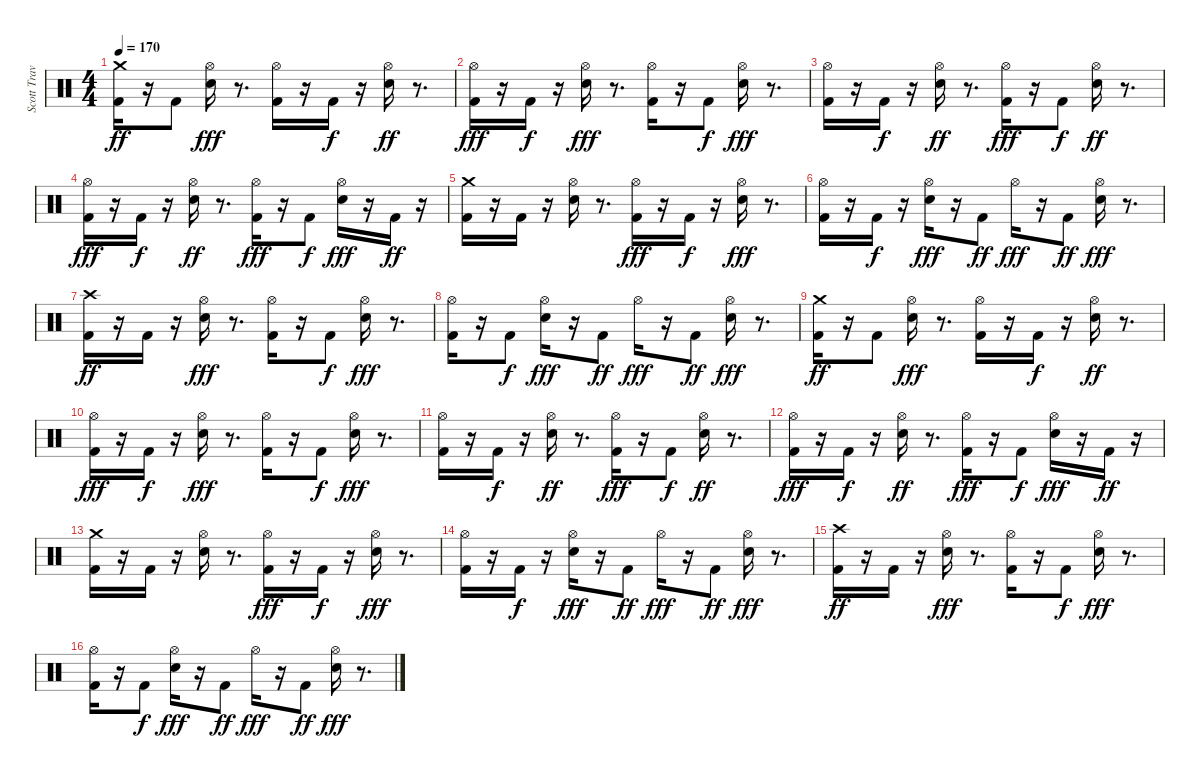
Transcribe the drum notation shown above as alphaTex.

\track ("Scott Travis" "Scott Trav") {instrument percussion}
\staff {score}
\articulation defaults
\ts (4 4)
\tempo 170
\clef neutral
\ks c
("Kick (hit) 2" "Crash medium (hit)").16{dy ff} r.16 "Kick (hit) 2".8 ("Hi-Hat (open)" "Snare (hit) 2").16{dy fff} r.8{d} ("Kick (hit) 2" "Hi-Hat (open)").16 r.16 "Kick (hit) 2".16{dy f} r.16 ("Hi-Hat (open)" "Snare (hit) 2").16{dy ff} r.8{d} |
("Hi-Hat (open)" "Kick (hit) 2").16{dy fff} r.16 "Kick (hit) 2".16{dy f} r.16 ("Snare (hit) 2" "Hi-Hat (open)").16{dy fff} r.8{d} ("Kick (hit) 2" "Hi-Hat (open)").16 r.16 "Kick (hit) 2".8{dy f} ("Snare (hit) 2" "Hi-Hat (open)").16{dy fff} r.8{d} |
("Kick (hit) 2" "Hi-Hat (open)").16 r.16 "Kick (hit) 2".16{dy f} r.16 ("Hi-Hat (open)" "Snare (hit) 2").16{dy ff} r.8{d} ("Kick (hit) 2" "Hi-Hat (open)").16{dy fff} r.16 "Kick (hit) 2".8{dy f} ("Hi-Hat (open)" "Snare (hit) 2").16{dy ff} r.8{d} |
("Kick (hit) 2" "Hi-Hat (open)").16{dy fff} r.16 "Kick (hit) 2".16{dy f} r.16 ("Hi-Hat (open)" "Snare (hit) 2").16{dy ff} r.8{d} ("Kick (hit) 2" "Hi-Hat (open)").16{dy fff} r.16 "Kick (hit) 2".8{dy f} ("Snare (hit) 2" "Hi-Hat (open)").16{dy fff} r.16 "Kick (hit) 2".16{dy ff} r.16 |
("Crash medium (hit)" "Kick (hit) 2").16 r.16 "Kick (hit) 2".16 r.16 ("Snare (hit) 2" "Hi-Hat (open)").16 r.8{d} ("Kick (hit) 2" "Hi-Hat (open)").16{dy fff} r.16 "Kick (hit) 2".16{dy f} r.16 ("Snare (hit) 2" "Hi-Hat (open)").16{dy fff} r.8{d} |
("Kick (hit) 2" "Hi-Hat (open)").16 r.16 "Kick (hit) 2".16{dy f} r.16 ("Snare (hit) 2" "Hi-Hat (open)").16{dy fff} r.16 "Kick (hit) 2".8{dy ff} "Hi-Hat (open)".16{dy fff} r.16 "Kick (hit) 2".8{dy ff} ("Snare (hit) 2" "Hi-Hat (open)").16{dy fff} r.8{d} |
("Crash high (hit)" "Kick (hit) 2").16{dy ff} r.16 "Kick (hit) 2".16 r.16 ("Hi-Hat (open)" "Snare (hit) 2").16{dy fff} r.8{d} ("Kick (hit) 2" "Hi-Hat (open)").16 r.16 "Kick (hit) 2".8{dy f} ("Snare (hit) 2" "Hi-Hat (open)").16{dy fff} r.8{d} |
("Kick (hit) 2" "Hi-Hat (open)").16 r.16 "Kick (hit) 2".8{dy f} ("Snare (hit) 2" "Hi-Hat (open)").16{dy fff} r.16 "Kick (hit) 2".8{dy ff} "Hi-Hat (open)".16{dy fff} r.16 "Kick (hit) 2".8{dy ff} ("Snare (hit) 2" "Hi-Hat (open)").16{dy fff} r.8{d} |
("Kick (hit) 2" "Crash medium (hit)").16{dy ff} r.16 "Kick (hit) 2".8 ("Hi-Hat (open)" "Snare (hit) 2").16{dy fff} r.8{d} ("Kick (hit) 2" "Hi-Hat (open)").16 r.16 "Kick (hit) 2".16{dy f} r.16 ("Hi-Hat (open)" "Snare (hit) 2").16{dy ff} r.8{d} |
("Hi-Hat (open)" "Kick (hit) 2").16{dy fff} r.16 "Kick (hit) 2".16{dy f} r.16 ("Snare (hit) 2" "Hi-Hat (open)").16{dy fff} r.8{d} ("Kick (hit) 2" "Hi-Hat (open)").16 r.16 "Kick (hit) 2".8{dy f} ("Snare (hit) 2" "Hi-Hat (open)").16{dy fff} r.8{d} |
("Kick (hit) 2" "Hi-Hat (open)").16 r.16 "Kick (hit) 2".16{dy f} r.16 ("Hi-Hat (open)" "Snare (hit) 2").16{dy ff} r.8{d} ("Kick (hit) 2" "Hi-Hat (open)").16{dy fff} r.16 "Kick (hit) 2".8{dy f} ("Hi-Hat (open)" "Snare (hit) 2").16{dy ff} r.8{d} |
("Kick (hit) 2" "Hi-Hat (open)").16{dy fff} r.16 "Kick (hit) 2".16{dy f} r.16 ("Hi-Hat (open)" "Snare (hit) 2").16{dy ff} r.8{d} ("Kick (hit) 2" "Hi-Hat (open)").16{dy fff} r.16 "Kick (hit) 2".8{dy f} ("Snare (hit) 2" "Hi-Hat (open)").16{dy fff} r.16 "Kick (hit) 2".16{dy ff} r.16 |
("Crash medium (hit)" "Kick (hit) 2").16 r.16 "Kick (hit) 2".16 r.16 ("Snare (hit) 2" "Hi-Hat (open)").16 r.8{d} ("Kick (hit) 2" "Hi-Hat (open)").16{dy fff} r.16 "Kick (hit) 2".16{dy f} r.16 ("Snare (hit) 2" "Hi-Hat (open)").16{dy fff} r.8{d} |
("Kick (hit) 2" "Hi-Hat (open)").16 r.16 "Kick (hit) 2".16{dy f} r.16 ("Snare (hit) 2" "Hi-Hat (open)").16{dy fff} r.16 "Kick (hit) 2".8{dy ff} "Hi-Hat (open)".16{dy fff} r.16 "Kick (hit) 2".8{dy ff} ("Snare (hit) 2" "Hi-Hat (open)").16{dy fff} r.8{d} |
("Crash high (hit)" "Kick (hit) 2").16{dy ff} r.16 "Kick (hit) 2".16 r.16 ("Hi-Hat (open)" "Snare (hit) 2").16{dy fff} r.8{d} ("Kick (hit) 2" "Hi-Hat (open)").16 r.16 "Kick (hit) 2".8{dy f} ("Snare (hit) 2" "Hi-Hat (open)").16{dy fff} r.8{d} |
("Kick (hit) 2" "Hi-Hat (open)").16 r.16 "Kick (hit) 2".8{dy f} ("Snare (hit) 2" "Hi-Hat (open)").16{dy fff} r.16 "Kick (hit) 2".8{dy ff} "Hi-Hat (open)".16{dy fff} r.16 "Kick (hit) 2".8{dy ff} ("Snare (hit) 2" "Hi-Hat (open)").16{dy fff} r.8{d}
